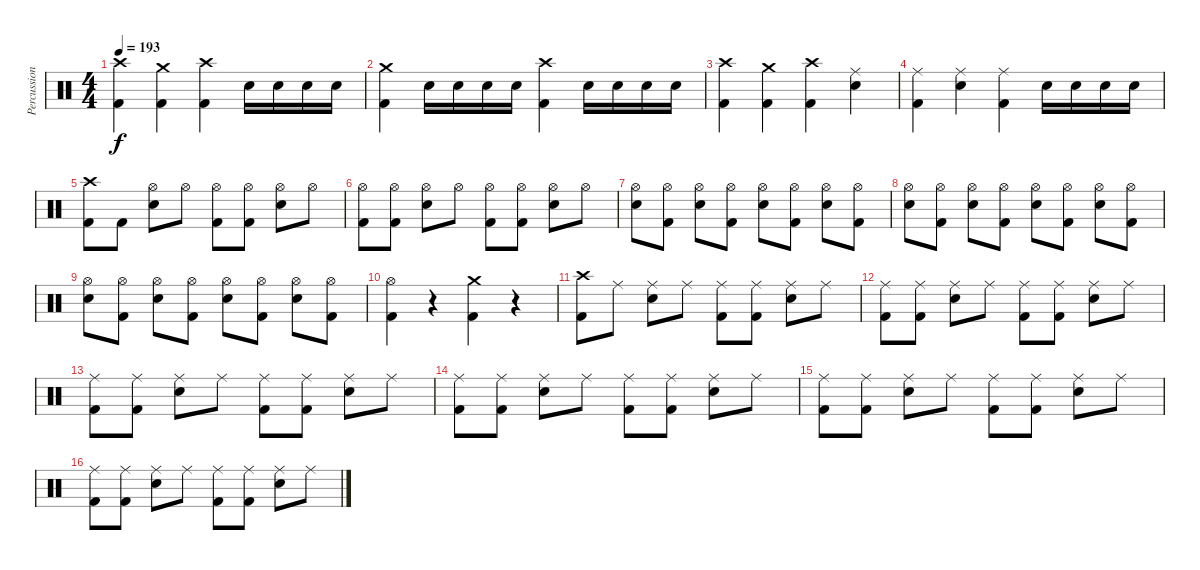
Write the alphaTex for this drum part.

\track ("Percussion" "Percussion") {instrument percussion}
\staff {score}
\articulation defaults
\ts (4 4)
\tempo 193
\clef neutral
\ks c
("Crash high (hit)" "Kick (hit) 2").4{dy f} ("Crash medium (hit)" "Kick (hit) 2").4 ("Crash high (hit)" "Kick (hit) 2").4 "Snare (hit) 2".16 "Snare (hit) 2".16 "Snare (hit) 2".16 "Snare (hit) 2".16 |
("Crash medium (hit)" "Kick (hit) 2").4 "Snare (hit) 2".16 "Snare (hit) 2".16 "Snare (hit) 2".16 "Snare (hit) 2".16 ("Crash high (hit)" "Kick (hit) 2").4 "Snare (hit) 2".16 "Snare (hit) 2".16 "Snare (hit) 2".16 "Snare (hit) 2".16 |
("Crash high (hit)" "Kick (hit) 2").4 ("Crash medium (hit)" "Kick (hit) 2").4 ("Crash high (hit)" "Kick (hit) 2").4 ("Ride (middle)" "Snare (hit) 2").4 |
("Ride (middle)" "Kick (hit) 2").4 ("Ride (middle)" "Snare (hit) 2").4 ("Ride (middle)" "Kick (hit) 2").4 "Snare (hit) 2".16 "Snare (hit) 2".16 "Snare (hit) 2".16 "Snare (hit) 2".16 |
("Crash high (hit)" "Kick (hit) 2").8 "Kick (hit) 2".8 ("Hi-Hat (open)" "Snare (hit) 2").8 "Hi-Hat (open)".8 ("Hi-Hat (open)" "Kick (hit) 2").8 ("Hi-Hat (open)" "Kick (hit) 2").8 ("Hi-Hat (open)" "Snare (hit) 2").8 "Hi-Hat (open)".8 |
("Hi-Hat (open)" "Kick (hit) 2").8 ("Hi-Hat (open)" "Kick (hit) 2").8 ("Hi-Hat (open)" "Snare (hit) 2").8 "Hi-Hat (open)".8 ("Hi-Hat (open)" "Kick (hit) 2").8 ("Hi-Hat (open)" "Kick (hit) 2").8 ("Hi-Hat (open)" "Snare (hit) 2").8 "Hi-Hat (open)".8 |
("Hi-Hat (open)" "Snare (hit) 2").8 ("Hi-Hat (open)" "Kick (hit) 2").8 ("Hi-Hat (open)" "Snare (hit) 2").8 ("Hi-Hat (open)" "Kick (hit) 2").8 ("Hi-Hat (open)" "Snare (hit) 2").8 ("Hi-Hat (open)" "Kick (hit) 2").8 ("Hi-Hat (open)" "Snare (hit) 2").8 ("Hi-Hat (open)" "Kick (hit) 2").8 |
("Hi-Hat (open)" "Snare (hit) 2").8 ("Hi-Hat (open)" "Kick (hit) 2").8 ("Hi-Hat (open)" "Snare (hit) 2").8 ("Hi-Hat (open)" "Kick (hit) 2").8 ("Hi-Hat (open)" "Snare (hit) 2").8 ("Hi-Hat (open)" "Kick (hit) 2").8 ("Hi-Hat (open)" "Snare (hit) 2").8 ("Hi-Hat (open)" "Kick (hit) 2").8 |
("Hi-Hat (open)" "Snare (hit) 2").8 ("Hi-Hat (open)" "Kick (hit) 2").8 ("Hi-Hat (open)" "Snare (hit) 2").8 ("Hi-Hat (open)" "Kick (hit) 2").8 ("Hi-Hat (open)" "Snare (hit) 2").8 ("Hi-Hat (open)" "Kick (hit) 2").8 ("Hi-Hat (open)" "Snare (hit) 2").8 ("Hi-Hat (open)" "Kick (hit) 2").8 |
("Hi-Hat (open)" "Kick (hit) 2").4 r.4 ("Crash medium (hit)" "Kick (hit) 2").4 r.4 |
("Crash high (hit)" "Kick (hit) 2").8 "Ride (middle)".8 ("Ride (middle)" "Snare (hit) 2").8 "Ride (middle)".8 ("Ride (middle)" "Kick (hit) 2").8 ("Ride (middle)" "Kick (hit) 2").8 ("Ride (middle)" "Snare (hit) 2").8 "Ride (middle)".8 |
("Ride (middle)" "Kick (hit) 2").8 ("Ride (middle)" "Kick (hit) 2").8 ("Ride (middle)" "Snare (hit) 2").8 "Ride (middle)".8 ("Ride (middle)" "Kick (hit) 2").8 ("Ride (middle)" "Kick (hit) 2").8 ("Ride (middle)" "Snare (hit) 2").8 "Ride (middle)".8 |
("Ride (middle)" "Kick (hit) 2").8 ("Ride (middle)" "Kick (hit) 2").8 ("Ride (middle)" "Snare (hit) 2").8 "Ride (middle)".8 ("Ride (middle)" "Kick (hit) 2").8 ("Ride (middle)" "Kick (hit) 2").8 ("Ride (middle)" "Snare (hit) 2").8 "Ride (middle)".8 |
("Ride (middle)" "Kick (hit) 2").8 ("Ride (middle)" "Kick (hit) 2").8 ("Ride (middle)" "Snare (hit) 2").8 "Ride (middle)".8 ("Ride (middle)" "Kick (hit) 2").8 ("Ride (middle)" "Kick (hit) 2").8 ("Ride (middle)" "Snare (hit) 2").8 "Ride (middle)".8 |
("Ride (middle)" "Kick (hit) 2").8 ("Ride (middle)" "Kick (hit) 2").8 ("Ride (middle)" "Snare (hit) 2").8 "Ride (middle)".8 ("Ride (middle)" "Kick (hit) 2").8 ("Ride (middle)" "Kick (hit) 2").8 ("Ride (middle)" "Snare (hit) 2").8 "Ride (middle)".8 |
("Ride (middle)" "Kick (hit) 2").8 ("Ride (middle)" "Kick (hit) 2").8 ("Ride (middle)" "Snare (hit) 2").8 "Ride (middle)".8 ("Ride (middle)" "Kick (hit) 2").8 ("Ride (middle)" "Kick (hit) 2").8 ("Ride (middle)" "Snare (hit) 2").8 "Ride (middle)".8
